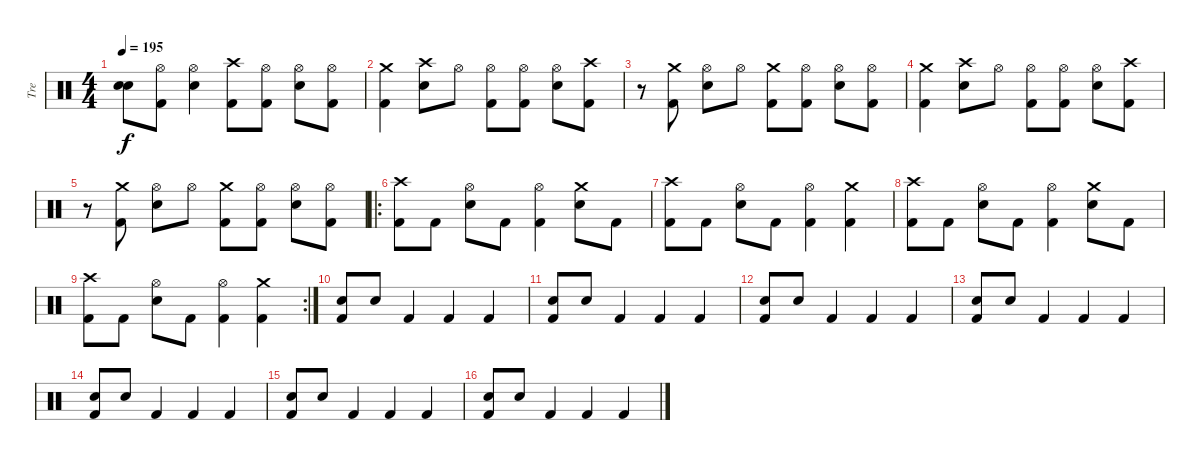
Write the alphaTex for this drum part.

\track ("Tre" "Tre") {instrument percussion}
\staff {score}
\articulation defaults
\ts (4 4)
\tempo 195
\clef neutral
\ks c
("Snare (hit)"{t} "Snare (hit)"{t}).8{dy f} ("Hi-Hat (open)" "Kick (hit) 2").8 ("Hi-Hat (open)" "Electric Snare (hit)").4 ("Crash high (hit)" "Kick (hit) 2").8 ("Hi-Hat (open)" "Kick (hit) 2").8 ("Hi-Hat (open)" "Electric Snare (hit)").8 ("Hi-Hat (open)" "Kick (hit) 2").8 |
("Crash medium (hit)" "Kick (hit) 2").4 ("Crash high (hit)" "Electric Snare (hit)").8 "Hi-Hat (open)".8 ("Hi-Hat (open)" "Kick (hit) 2").8 ("Hi-Hat (open)" "Kick (hit) 2").8 ("Hi-Hat (open)" "Electric Snare (hit)").8 ("Crash high (hit)" "Kick (hit) 2").8 |
r.8 ("Crash medium (hit)" "Kick (hit) 2").8 ("Hi-Hat (open)" "Electric Snare (hit)").8 "Hi-Hat (open)".8 ("Crash medium (hit)" "Kick (hit) 2").8 ("Hi-Hat (open)" "Kick (hit) 2").8 ("Hi-Hat (open)" "Electric Snare (hit)").8 ("Hi-Hat (open)" "Kick (hit) 2").8 |
("Crash medium (hit)" "Kick (hit) 2").4 ("Crash high (hit)" "Electric Snare (hit)").8 "Hi-Hat (open)".8 ("Hi-Hat (open)" "Kick (hit) 2").8 ("Hi-Hat (open)" "Kick (hit) 2").8 ("Hi-Hat (open)" "Electric Snare (hit)").8 ("Crash high (hit)" "Kick (hit) 2").8 |
r.8 ("Crash medium (hit)" "Kick (hit) 2").8 ("Hi-Hat (open)" "Electric Snare (hit)").8 "Hi-Hat (open)".8 ("Crash medium (hit)" "Kick (hit) 2").8 ("Hi-Hat (open)" "Kick (hit) 2").8 ("Hi-Hat (open)" "Electric Snare (hit)").8 ("Hi-Hat (open)" "Kick (hit) 2").8 |
\ro
("Crash high (hit)" "Kick (hit) 2").8 "Kick (hit) 2".8 ("Hi-Hat (open)" "Electric Snare (hit)").8 "Kick (hit) 2".8 ("Hi-Hat (open)" "Kick (hit) 2").4 ("Crash medium (hit)" "Electric Snare (hit)").8 "Kick (hit) 2".8 |
("Crash high (hit)" "Kick (hit) 2").8 "Kick (hit) 2".8 ("Hi-Hat (open)" "Electric Snare (hit)").8 "Kick (hit) 2".8 ("Hi-Hat (open)" "Kick (hit) 2").4 ("Crash medium (hit)" "Kick (hit) 2").4 |
("Crash high (hit)" "Kick (hit) 2").8 "Kick (hit) 2".8 ("Hi-Hat (open)" "Electric Snare (hit)").8 "Kick (hit) 2".8 ("Hi-Hat (open)" "Kick (hit) 2").4 ("Crash medium (hit)" "Electric Snare (hit)").8 "Kick (hit) 2".8 |
\rc 2
("Crash high (hit)" "Kick (hit) 2").8 "Kick (hit) 2".8 ("Hi-Hat (open)" "Electric Snare (hit)").8 "Kick (hit) 2".8 ("Hi-Hat (open)" "Kick (hit) 2").4 ("Crash medium (hit)" "Kick (hit) 2").4 |
("Electric Snare (hit)" "Kick (hit) 2").8 "Electric Snare (hit)".8 "Kick (hit) 2".4 "Kick (hit) 2".4 "Kick (hit) 2".4 |
("Electric Snare (hit)" "Kick (hit) 2").8 "Electric Snare (hit)".8 "Kick (hit) 2".4 "Kick (hit) 2".4 "Kick (hit) 2".4 |
("Electric Snare (hit)" "Kick (hit) 2").8 "Electric Snare (hit)".8 "Kick (hit) 2".4 "Kick (hit) 2".4 "Kick (hit) 2".4 |
("Electric Snare (hit)" "Kick (hit) 2").8 "Electric Snare (hit)".8 "Kick (hit) 2".4 "Kick (hit) 2".4 "Kick (hit) 2".4 |
("Electric Snare (hit)" "Kick (hit) 2").8 "Electric Snare (hit)".8 "Kick (hit) 2".4 "Kick (hit) 2".4 "Kick (hit) 2".4 |
("Electric Snare (hit)" "Kick (hit) 2").8 "Electric Snare (hit)".8 "Kick (hit) 2".4 "Kick (hit) 2".4 "Kick (hit) 2".4 |
("Electric Snare (hit)" "Kick (hit) 2").8 "Electric Snare (hit)".8 "Kick (hit) 2".4 "Kick (hit) 2".4 "Kick (hit) 2".4
